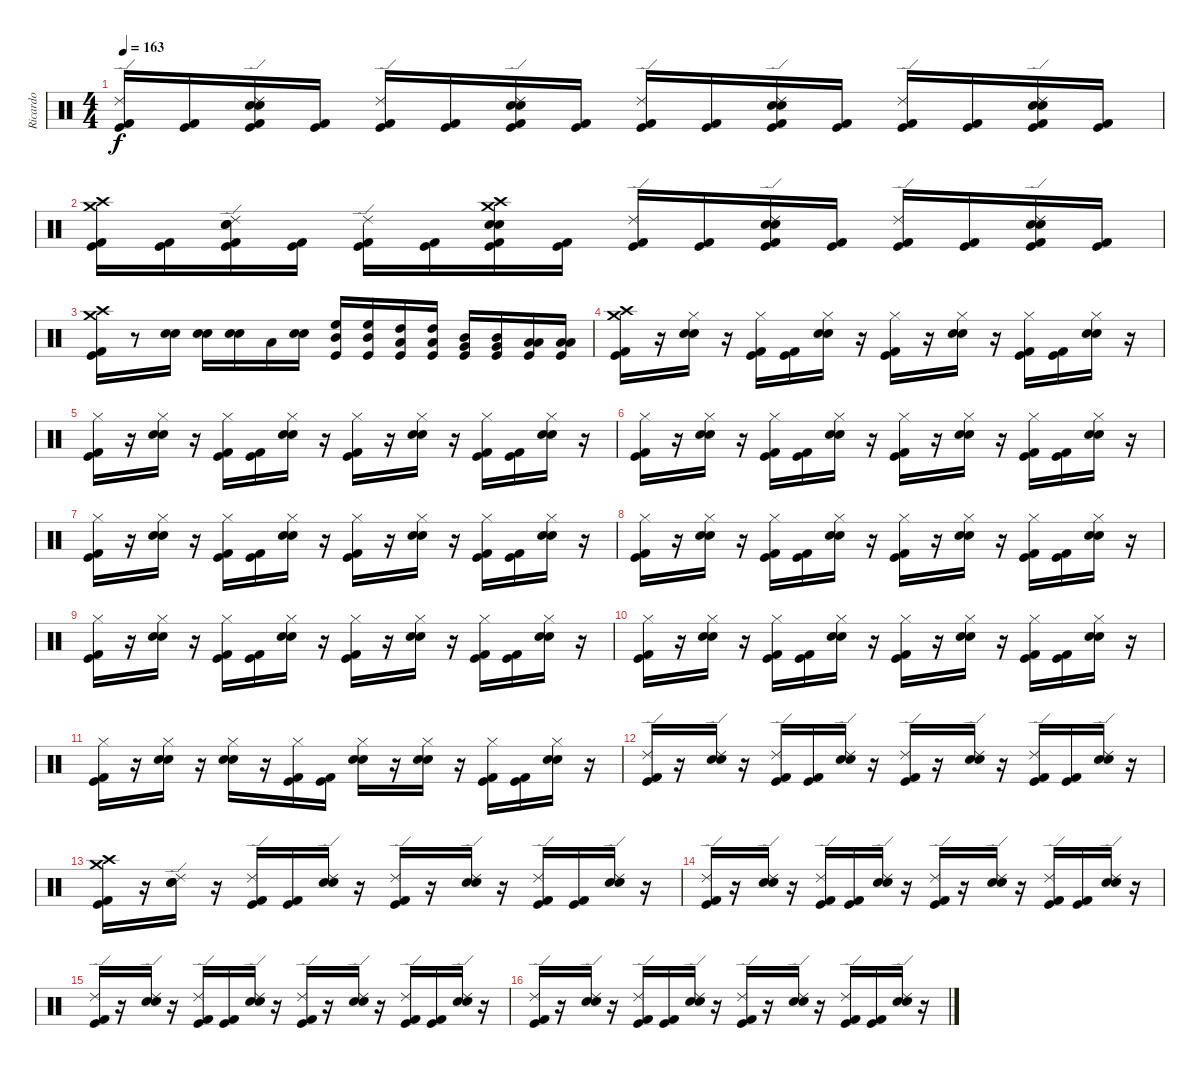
\track ("Ricardo" "Ricardo") {instrument percussion}
\staff {score}
\articulation defaults
\ts (4 4)
\tempo 163
\clef neutral
\ks c
("Ride (edge) 2" "Kick (hit) 2" "Kick (hit)").16{dy f} ("Kick (hit) 2" "Kick (hit)").16 ("Electric Snare (hit)" "Snare (hit) 2" "Ride (edge) 2" "Kick (hit) 2" "Kick (hit)").16 ("Kick (hit) 2" "Kick (hit)").16 ("Ride (edge) 2" "Kick (hit) 2" "Kick (hit)").16 ("Kick (hit) 2" "Kick (hit)").16 ("Electric Snare (hit)" "Snare (hit) 2" "Ride (edge) 2" "Kick (hit)" "Kick (hit) 2").16 ("Kick (hit) 2" "Kick (hit)").16 ("Ride (edge) 2" "Kick (hit) 2" "Kick (hit)").16 ("Kick (hit) 2" "Kick (hit)").16 ("Electric Snare (hit)" "Snare (hit) 2" "Ride (edge) 2" "Kick (hit) 2" "Kick (hit)").16 ("Kick (hit) 2" "Kick (hit)").16 ("Ride (edge) 2" "Kick (hit) 2" "Kick (hit)").16 ("Kick (hit) 2" "Kick (hit)").16 ("Electric Snare (hit)" "Snare (hit) 2" "Ride (edge) 2" "Kick (hit) 2" "Kick (hit)").16 ("Kick (hit) 2" "Kick (hit)").16 |
("Crash high (hit)" "Crash medium (hit)" "Kick (hit) 2" "Kick (hit)").16 ("Kick (hit) 2" "Kick (hit)").16 ("Electric Snare (hit)" "Snare (hit) 2" "Ride (edge) 2" "Kick (hit) 2" "Kick (hit)").16 ("Kick (hit) 2" "Kick (hit)").16 ("Ride (edge) 2" "Kick (hit) 2" "Kick (hit)").16 ("Kick (hit) 2" "Kick (hit)").16 ("Crash high (hit)" "Crash medium (hit)" "Electric Snare (hit)" "Snare (hit) 2" "Kick (hit)" "Kick (hit) 2").16 ("Kick (hit) 2" "Kick (hit)").16 ("Ride (edge) 2" "Kick (hit) 2" "Kick (hit)").16 ("Kick (hit) 2" "Kick (hit)").16 ("Electric Snare (hit)" "Snare (hit) 2" "Ride (edge) 2" "Kick (hit) 2" "Kick (hit)").16 ("Kick (hit) 2" "Kick (hit)").16 ("Ride (edge) 2" "Kick (hit) 2" "Kick (hit)").16 ("Kick (hit) 2" "Kick (hit)").16 ("Electric Snare (hit)" "Snare (hit) 2" "Ride (edge) 2" "Kick (hit) 2" "Kick (hit)").16 ("Kick (hit) 2" "Kick (hit)").16 |
("Crash high (hit)" "Crash medium (hit)" "Kick (hit) 2" "Kick (hit)").16 r.8 ("Electric Snare (hit)" "Snare (hit) 2").16 ("Electric Snare (hit)" "Snare (hit) 2").16 ("Electric Snare (hit)" "Snare (hit) 2").16 "Low Tom (hit)".16 ("Snare (hit) 2" "Electric Snare (hit)").16 ("High Floor Tom (hit)" "Mid Tom (hit)" "Kick (hit)").16 ("High Floor Tom (hit)" "Mid Tom (hit)" "Kick (hit)").16 ("High Tom (hit)" "Low Tom (hit)" "Kick (hit)").16 ("High Tom (hit)" "Low Tom (hit)" "Kick (hit)").16 ("Very Low Tom (hit)" "Mid Tom (hit)" "Kick (hit)").16 ("Mid Tom (hit)" "Very Low Tom (hit)" "Kick (hit)").16 ("Low Tom (hit)" "Low Floor Tom (hit)" "Kick (hit)").16 ("Low Tom (hit)" "Low Floor Tom (hit)" "Kick (hit)").16 |
("Crash high (hit)" "Crash medium (hit)" "Kick (hit) 2" "Kick (hit)").16 r.16 ("Hi-Hat (closed)" "Electric Snare (hit)" "Snare (hit) 2").16 r.16 ("Kick (hit)" "Kick (hit) 2" "Hi-Hat (closed)").16 ("Kick (hit)" "Kick (hit) 2").16 ("Electric Snare (hit)" "Snare (hit) 2" "Hi-Hat (closed)").16 r.16 ("Kick (hit)" "Kick (hit) 2" "Hi-Hat (closed)").16 r.16 ("Electric Snare (hit)" "Snare (hit) 2" "Hi-Hat (closed)").16 r.16 ("Kick (hit) 2" "Kick (hit)" "Hi-Hat (closed)").16 ("Kick (hit) 2" "Kick (hit)").16 ("Electric Snare (hit)" "Snare (hit) 2" "Hi-Hat (closed)").16 r.16 |
("Hi-Hat (closed)" "Kick (hit) 2" "Kick (hit)").16 r.16 ("Hi-Hat (closed)" "Electric Snare (hit)" "Snare (hit) 2").16 r.16 ("Kick (hit)" "Kick (hit) 2" "Hi-Hat (closed)").16 ("Kick (hit)" "Kick (hit) 2").16 ("Electric Snare (hit)" "Snare (hit) 2" "Hi-Hat (closed)").16 r.16 ("Kick (hit)" "Kick (hit) 2" "Hi-Hat (closed)").16 r.16 ("Electric Snare (hit)" "Snare (hit) 2" "Hi-Hat (closed)").16 r.16 ("Kick (hit) 2" "Kick (hit)" "Hi-Hat (closed)").16 ("Kick (hit) 2" "Kick (hit)").16 ("Electric Snare (hit)" "Snare (hit) 2" "Hi-Hat (closed)").16 r.16 |
("Hi-Hat (closed)" "Kick (hit) 2" "Kick (hit)").16 r.16 ("Hi-Hat (closed)" "Electric Snare (hit)" "Snare (hit) 2").16 r.16 ("Kick (hit)" "Kick (hit) 2" "Hi-Hat (closed)").16 ("Kick (hit)" "Kick (hit) 2").16 ("Electric Snare (hit)" "Snare (hit) 2" "Hi-Hat (closed)").16 r.16 ("Kick (hit)" "Kick (hit) 2" "Hi-Hat (closed)").16 r.16 ("Electric Snare (hit)" "Snare (hit) 2" "Hi-Hat (closed)").16 r.16 ("Kick (hit) 2" "Kick (hit)" "Hi-Hat (closed)").16 ("Kick (hit) 2" "Kick (hit)").16 ("Electric Snare (hit)" "Snare (hit) 2" "Hi-Hat (closed)").16 r.16 |
("Hi-Hat (closed)" "Kick (hit) 2" "Kick (hit)").16 r.16 ("Hi-Hat (closed)" "Electric Snare (hit)" "Snare (hit) 2").16 r.16 ("Kick (hit)" "Kick (hit) 2" "Hi-Hat (closed)").16 ("Kick (hit)" "Kick (hit) 2").16 ("Electric Snare (hit)" "Snare (hit) 2" "Hi-Hat (closed)").16 r.16 ("Kick (hit)" "Kick (hit) 2" "Hi-Hat (closed)").16 r.16 ("Electric Snare (hit)" "Snare (hit) 2" "Hi-Hat (closed)").16 r.16 ("Kick (hit) 2" "Kick (hit)" "Hi-Hat (closed)").16 ("Kick (hit) 2" "Kick (hit)").16 ("Electric Snare (hit)" "Snare (hit) 2" "Hi-Hat (closed)").16 r.16 |
("Hi-Hat (closed)" "Kick (hit) 2" "Kick (hit)").16 r.16 ("Hi-Hat (closed)" "Electric Snare (hit)" "Snare (hit) 2").16 r.16 ("Kick (hit)" "Kick (hit) 2" "Hi-Hat (closed)").16 ("Kick (hit)" "Kick (hit) 2").16 ("Electric Snare (hit)" "Snare (hit) 2" "Hi-Hat (closed)").16 r.16 ("Kick (hit)" "Kick (hit) 2" "Hi-Hat (closed)").16 r.16 ("Electric Snare (hit)" "Snare (hit) 2" "Hi-Hat (closed)").16 r.16 ("Kick (hit) 2" "Kick (hit)" "Hi-Hat (closed)").16 ("Kick (hit) 2" "Kick (hit)").16 ("Electric Snare (hit)" "Snare (hit) 2" "Hi-Hat (closed)").16 r.16 |
("Hi-Hat (closed)" "Kick (hit) 2" "Kick (hit)").16 r.16 ("Hi-Hat (closed)" "Electric Snare (hit)" "Snare (hit) 2").16 r.16 ("Kick (hit)" "Kick (hit) 2" "Hi-Hat (closed)").16 ("Kick (hit)" "Kick (hit) 2").16 ("Electric Snare (hit)" "Snare (hit) 2" "Hi-Hat (closed)").16 r.16 ("Kick (hit)" "Kick (hit) 2" "Hi-Hat (closed)").16 r.16 ("Electric Snare (hit)" "Snare (hit) 2" "Hi-Hat (closed)").16 r.16 ("Kick (hit) 2" "Kick (hit)" "Hi-Hat (closed)").16 ("Kick (hit) 2" "Kick (hit)").16 ("Electric Snare (hit)" "Snare (hit) 2" "Hi-Hat (closed)").16 r.16 |
("Hi-Hat (closed)" "Kick (hit) 2" "Kick (hit)").16 r.16 ("Hi-Hat (closed)" "Electric Snare (hit)" "Snare (hit) 2").16 r.16 ("Kick (hit)" "Kick (hit) 2" "Hi-Hat (closed)").16 ("Kick (hit)" "Kick (hit) 2").16 ("Electric Snare (hit)" "Snare (hit) 2" "Hi-Hat (closed)").16 r.16 ("Kick (hit)" "Kick (hit) 2" "Hi-Hat (closed)").16 r.16 ("Electric Snare (hit)" "Snare (hit) 2" "Hi-Hat (closed)").16 r.16 ("Kick (hit) 2" "Kick (hit)" "Hi-Hat (closed)").16 ("Kick (hit) 2" "Kick (hit)").16 ("Electric Snare (hit)" "Snare (hit) 2" "Hi-Hat (closed)").16 r.16 |
("Hi-Hat (closed)" "Kick (hit) 2" "Kick (hit)").16 r.16 ("Hi-Hat (closed)" "Electric Snare (hit)" "Snare (hit) 2").16 r.16 ("Electric Snare (hit)" "Snare (hit) 2" "Hi-Hat (closed)").16 r.16 ("Kick (hit) 2" "Kick (hit)" "Hi-Hat (closed)").16 ("Kick (hit) 2" "Kick (hit)").16 ("Electric Snare (hit)" "Snare (hit) 2" "Hi-Hat (closed)").16 r.16 ("Electric Snare (hit)" "Snare (hit) 2" "Hi-Hat (closed)").16 r.16 ("Kick (hit) 2" "Kick (hit)" "Hi-Hat (closed)").16 ("Kick (hit) 2" "Kick (hit)").16 ("Electric Snare (hit)" "Snare (hit) 2" "Hi-Hat (closed)").16 r.16 |
("Ride (edge) 2" "Kick (hit) 2" "Kick (hit)").16 r.16 ("Ride (edge) 2" "Electric Snare (hit)" "Snare (hit) 2").16 r.16 ("Ride (edge) 2" "Kick (hit)" "Kick (hit) 2").16 ("Kick (hit)" "Kick (hit) 2").16 ("Ride (edge) 2" "Electric Snare (hit)" "Snare (hit) 2").16 r.16 ("Ride (edge) 2" "Kick (hit)" "Kick (hit) 2").16 r.16 ("Ride (edge) 2" "Electric Snare (hit)" "Snare (hit) 2").16 r.16 ("Ride (edge) 2" "Kick (hit) 2" "Kick (hit)").16 ("Kick (hit) 2" "Kick (hit)").16 ("Ride (edge) 2" "Electric Snare (hit)" "Snare (hit) 2").16 r.16 |
("Crash high (hit)" "Crash medium (hit)" "Kick (hit) 2" "Kick (hit)").16 r.16 ("Ride (edge) 2" "Electric Snare (hit)" "Snare (hit) 2").16 r.16 ("Ride (edge) 2" "Kick (hit)" "Kick (hit) 2").16 ("Kick (hit)" "Kick (hit) 2").16 ("Ride (edge) 2" "Electric Snare (hit)" "Snare (hit) 2").16 r.16 ("Ride (edge) 2" "Kick (hit)" "Kick (hit) 2").16 r.16 ("Ride (edge) 2" "Electric Snare (hit)" "Snare (hit) 2").16 r.16 ("Ride (edge) 2" "Kick (hit) 2" "Kick (hit)").16 ("Kick (hit) 2" "Kick (hit)").16 ("Ride (edge) 2" "Electric Snare (hit)" "Snare (hit) 2").16 r.16 |
("Ride (edge) 2" "Kick (hit) 2" "Kick (hit)").16 r.16 ("Ride (edge) 2" "Electric Snare (hit)" "Snare (hit) 2").16 r.16 ("Ride (edge) 2" "Kick (hit)" "Kick (hit) 2").16 ("Kick (hit)" "Kick (hit) 2").16 ("Ride (edge) 2" "Electric Snare (hit)" "Snare (hit) 2").16 r.16 ("Ride (edge) 2" "Kick (hit)" "Kick (hit) 2").16 r.16 ("Ride (edge) 2" "Electric Snare (hit)" "Snare (hit) 2").16 r.16 ("Ride (edge) 2" "Kick (hit) 2" "Kick (hit)").16 ("Kick (hit) 2" "Kick (hit)").16 ("Ride (edge) 2" "Electric Snare (hit)" "Snare (hit) 2").16 r.16 |
("Ride (edge) 2" "Kick (hit) 2" "Kick (hit)").16 r.16 ("Ride (edge) 2" "Electric Snare (hit)" "Snare (hit) 2").16 r.16 ("Ride (edge) 2" "Kick (hit)" "Kick (hit) 2").16 ("Kick (hit)" "Kick (hit) 2").16 ("Ride (edge) 2" "Electric Snare (hit)" "Snare (hit) 2").16 r.16 ("Ride (edge) 2" "Kick (hit)" "Kick (hit) 2").16 r.16 ("Ride (edge) 2" "Electric Snare (hit)" "Snare (hit) 2").16 r.16 ("Ride (edge) 2" "Kick (hit) 2" "Kick (hit)").16 ("Kick (hit) 2" "Kick (hit)").16 ("Ride (edge) 2" "Electric Snare (hit)" "Snare (hit) 2").16 r.16 |
("Ride (edge) 2" "Kick (hit) 2" "Kick (hit)").16 r.16 ("Ride (edge) 2" "Electric Snare (hit)" "Snare (hit) 2").16 r.16 ("Ride (edge) 2" "Kick (hit)" "Kick (hit) 2").16 ("Kick (hit)" "Kick (hit) 2").16 ("Ride (edge) 2" "Electric Snare (hit)" "Snare (hit) 2").16 r.16 ("Ride (edge) 2" "Kick (hit)" "Kick (hit) 2").16 r.16 ("Ride (edge) 2" "Electric Snare (hit)" "Snare (hit) 2").16 r.16 ("Ride (edge) 2" "Kick (hit) 2" "Kick (hit)").16 ("Kick (hit) 2" "Kick (hit)").16 ("Ride (edge) 2" "Electric Snare (hit)" "Snare (hit) 2").16 r.16
